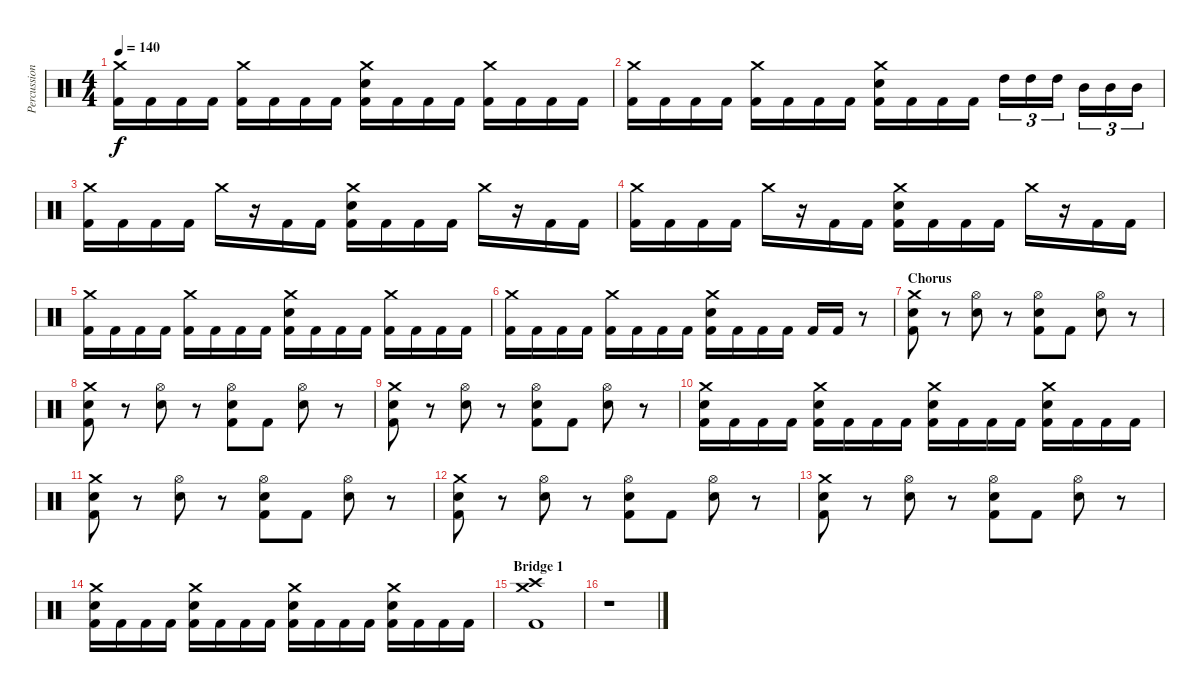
\track ("Percussions" "Percussion") {instrument percussion}
\staff {score}
\articulation defaults
\ts (4 4)
\tempo 140
\clef neutral
\ks c
("Crash medium (hit)" "Kick (hit) 2").16{dy f} "Kick (hit) 2".16 "Kick (hit) 2".16 "Kick (hit) 2".16 ("Crash medium (hit)" "Kick (hit) 2").16 "Kick (hit) 2".16 "Kick (hit) 2".16 "Kick (hit) 2".16 ("Crash medium (hit)" "Snare (hit) 2" "Kick (hit) 2").16 "Kick (hit) 2".16 "Kick (hit) 2".16 "Kick (hit) 2".16 ("Crash medium (hit)" "Kick (hit) 2").16 "Kick (hit) 2".16 "Kick (hit) 2".16 "Kick (hit) 2".16 |
("Crash medium (hit)" "Kick (hit) 2").16 "Kick (hit) 2".16 "Kick (hit) 2".16 "Kick (hit) 2".16 ("Crash medium (hit)" "Kick (hit) 2").16 "Kick (hit) 2".16 "Kick (hit) 2".16 "Kick (hit) 2".16 ("Crash medium (hit)" "Snare (hit) 2" "Kick (hit) 2").16 "Kick (hit) 2".16 "Kick (hit) 2".16 "Kick (hit) 2".16 "High Tom (hit)".16{tu (3 2)} "High Tom (hit)".16{tu (3 2)} "High Tom (hit)".16{tu (3 2)} "Mid Tom (hit)".16{tu (3 2)} "Mid Tom (hit)".16{tu (3 2)} "Mid Tom (hit)".16{tu (3 2)} |
("Crash medium (hit)" "Kick (hit) 2").16 "Kick (hit) 2".16 "Kick (hit) 2".16 "Kick (hit) 2".16 "Crash medium (hit)".16 r.16 "Kick (hit) 2".16 "Kick (hit) 2".16 ("Crash medium (hit)" "Snare (hit) 2" "Kick (hit) 2").16 "Kick (hit) 2".16 "Kick (hit) 2".16 "Kick (hit) 2".16 "Crash medium (hit)".16 r.16 "Kick (hit) 2".16 "Kick (hit) 2".16 |
("Crash medium (hit)" "Kick (hit) 2").16 "Kick (hit) 2".16 "Kick (hit) 2".16 "Kick (hit) 2".16 "Crash medium (hit)".16 r.16 "Kick (hit) 2".16 "Kick (hit) 2".16 ("Crash medium (hit)" "Snare (hit) 2" "Kick (hit) 2").16 "Kick (hit) 2".16 "Kick (hit) 2".16 "Kick (hit) 2".16 "Crash medium (hit)".16 r.16 "Kick (hit) 2".16 "Kick (hit) 2".16 |
("Crash medium (hit)" "Kick (hit) 2").16 "Kick (hit) 2".16 "Kick (hit) 2".16 "Kick (hit) 2".16 ("Crash medium (hit)" "Kick (hit) 2").16 "Kick (hit) 2".16 "Kick (hit) 2".16 "Kick (hit) 2".16 ("Crash medium (hit)" "Snare (hit) 2" "Kick (hit) 2").16 "Kick (hit) 2".16 "Kick (hit) 2".16 "Kick (hit) 2".16 ("Crash medium (hit)" "Kick (hit) 2").16 "Kick (hit) 2".16 "Kick (hit) 2".16 "Kick (hit) 2".16 |
("Crash medium (hit)" "Kick (hit) 2").16 "Kick (hit) 2".16 "Kick (hit) 2".16 "Kick (hit) 2".16 ("Crash medium (hit)" "Kick (hit) 2").16 "Kick (hit) 2".16 "Kick (hit) 2".16 "Kick (hit) 2".16 ("Crash medium (hit)" "Snare (hit) 2" "Kick (hit) 2").16 "Kick (hit) 2".16 "Kick (hit) 2".16 "Kick (hit) 2".16 "Kick (hit) 2".16 "Kick (hit) 2".16 r.8 |
\section ("" "Chorus")
("Crash medium (hit)" "Snare (hit) 2" "Kick (hit) 2").8 r.8 ("Hi-Hat (open)" "Snare (hit) 2").8 r.8 ("Hi-Hat (open)" "Snare (hit) 2" "Kick (hit) 2").8 "Kick (hit) 2".8 ("Hi-Hat (open)" "Snare (hit) 2").8 r.8 |
("Crash medium (hit)" "Snare (hit) 2" "Kick (hit) 2").8 r.8 ("Hi-Hat (open)" "Snare (hit) 2").8 r.8 ("Hi-Hat (open)" "Snare (hit) 2" "Kick (hit) 2").8 "Kick (hit) 2".8 ("Hi-Hat (open)" "Snare (hit) 2").8 r.8 |
("Crash medium (hit)" "Snare (hit) 2" "Kick (hit) 2").8 r.8 ("Hi-Hat (open)" "Snare (hit) 2").8 r.8 ("Hi-Hat (open)" "Snare (hit) 2" "Kick (hit) 2").8 "Kick (hit) 2".8 ("Hi-Hat (open)" "Snare (hit) 2").8 r.8 |
("Crash medium (hit)" "Snare (hit) 2" "Kick (hit) 2").16 "Kick (hit) 2".16 "Kick (hit) 2".16 "Kick (hit) 2".16 ("Crash medium (hit)" "Snare (hit) 2" "Kick (hit) 2").16 "Kick (hit) 2".16 "Kick (hit) 2".16 "Kick (hit) 2".16 ("Crash medium (hit)" "Snare (hit) 2" "Kick (hit) 2").16 "Kick (hit) 2".16 "Kick (hit) 2".16 "Kick (hit) 2".16 ("Crash medium (hit)" "Snare (hit) 2" "Kick (hit) 2").16 "Kick (hit) 2".16 "Kick (hit) 2".16 "Kick (hit) 2".16 |
("Crash medium (hit)" "Snare (hit) 2" "Kick (hit) 2").8 r.8 ("Hi-Hat (open)" "Snare (hit) 2").8 r.8 ("Hi-Hat (open)" "Snare (hit) 2" "Kick (hit) 2").8 "Kick (hit) 2".8 ("Hi-Hat (open)" "Snare (hit) 2").8 r.8 |
("Crash medium (hit)" "Snare (hit) 2" "Kick (hit) 2").8 r.8 ("Hi-Hat (open)" "Snare (hit) 2").8 r.8 ("Hi-Hat (open)" "Snare (hit) 2" "Kick (hit) 2").8 "Kick (hit) 2".8 ("Hi-Hat (open)" "Snare (hit) 2").8 r.8 |
("Crash medium (hit)" "Snare (hit) 2" "Kick (hit) 2").8 r.8 ("Hi-Hat (open)" "Snare (hit) 2").8 r.8 ("Hi-Hat (open)" "Snare (hit) 2" "Kick (hit) 2").8 "Kick (hit) 2".8 ("Hi-Hat (open)" "Snare (hit) 2").8 r.8 |
("Crash medium (hit)" "Snare (hit) 2" "Kick (hit) 2").16 "Kick (hit) 2".16 "Kick (hit) 2".16 "Kick (hit) 2".16 ("Crash medium (hit)" "Snare (hit) 2" "Kick (hit) 2").16 "Kick (hit) 2".16 "Kick (hit) 2".16 "Kick (hit) 2".16 ("Crash medium (hit)" "Snare (hit) 2" "Kick (hit) 2").16 "Kick (hit) 2".16 "Kick (hit) 2".16 "Kick (hit) 2".16 ("Crash medium (hit)" "Snare (hit) 2" "Kick (hit) 2").16 "Kick (hit) 2".16 "Kick (hit) 2".16 "Kick (hit) 2".16 |
\section ("" "Bridge 1")
("Crash medium (hit)" "Crash high (hit)" "Kick (hit) 2").1 |
r.1
